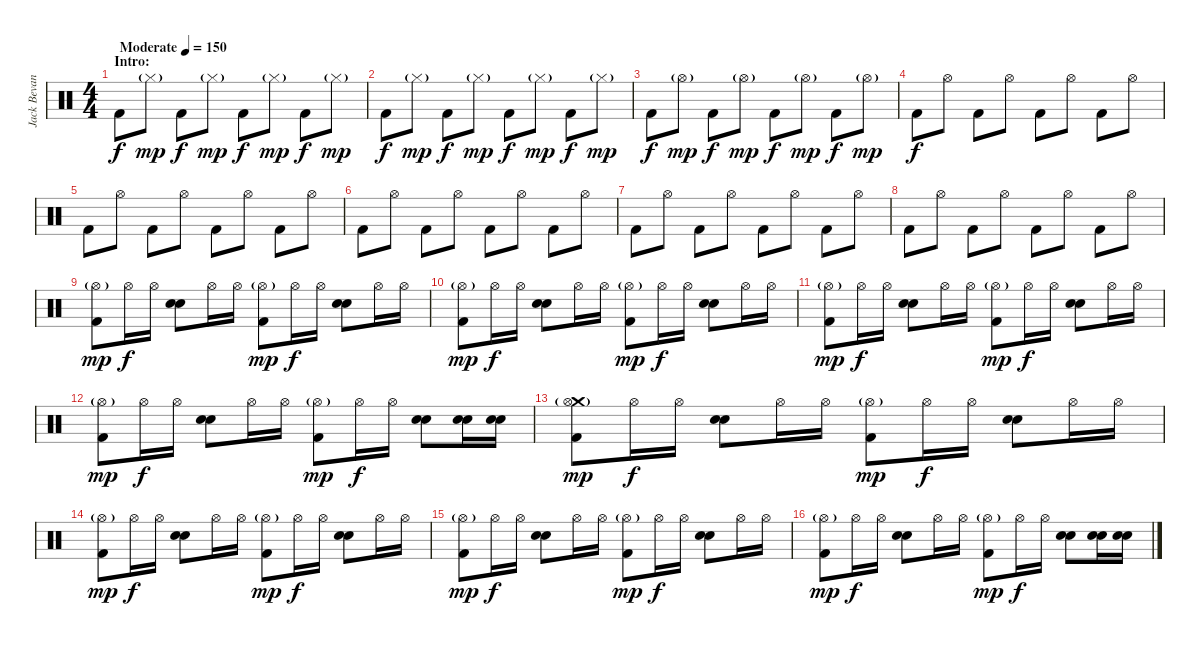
\track ("Jack Bevan (Percussion)" "Jack Bevan") {instrument percussion bank 255}
\staff {score}
\articulation defaults
\ts (4 4)
\section ("" "Intro:")
\tempo (150 "Moderate")
\clef neutral
\ks c "Kick (hit) 2".8{dy f} "Hi-Hat (closed)"{g}.8{dy mp} "Kick (hit) 2".8{dy f} "Hi-Hat (closed)"{g}.8{dy mp} "Kick (hit) 2".8{dy f} "Hi-Hat (closed)"{g}.8{dy mp} "Kick (hit) 2".8{dy f} "Hi-Hat (closed)"{g}.8{dy mp}
|
"Kick (hit) 2".8{dy f} "Hi-Hat (closed)"{g}.8{dy mp} "Kick (hit) 2".8{dy f} "Hi-Hat (closed)"{g}.8{dy mp} "Kick (hit) 2".8{dy f} "Hi-Hat (closed)"{g}.8{dy mp} "Kick (hit) 2".8{dy f} "Hi-Hat (closed)"{g}.8{dy mp} |
"Kick (hit) 2".8{dy f} "Hi-Hat (open)"{g}.8{dy mp} "Kick (hit) 2".8{dy f} "Hi-Hat (open)"{g}.8{dy mp} "Kick (hit) 2".8{dy f} "Hi-Hat (open)"{g}.8{dy mp} "Kick (hit) 2".8{dy f} "Hi-Hat (open)"{g}.8{dy mp} |
"Kick (hit) 2".8{dy f} "Hi-Hat (open)".8 "Kick (hit) 2".8 "Hi-Hat (open)".8 "Kick (hit) 2".8 "Hi-Hat (open)".8 "Kick (hit) 2".8 "Hi-Hat (open)".8 |
"Kick (hit) 2".8{volume 13} "Hi-Hat (open)".8 "Kick (hit) 2".8 "Hi-Hat (open)".8 "Kick (hit) 2".8 "Hi-Hat (open)".8 "Kick (hit) 2".8 "Hi-Hat (open)".8 |
"Kick (hit) 2".8 "Hi-Hat (open)".8 "Kick (hit) 2".8 "Hi-Hat (open)".8 "Kick (hit) 2".8 "Hi-Hat (open)".8 "Kick (hit) 2".8 "Hi-Hat (open)".8 |
"Kick (hit) 2".8 "Hi-Hat (open)".8 "Kick (hit) 2".8 "Hi-Hat (open)".8 "Kick (hit) 2".8 "Hi-Hat (open)".8 "Kick (hit) 2".8 "Hi-Hat (open)".8 |
"Kick (hit) 2".8 "Hi-Hat (open)".8 "Kick (hit) 2".8 "Hi-Hat (open)".8 "Kick (hit) 2".8 "Hi-Hat (open)".8 "Kick (hit) 2".8 "Hi-Hat (open)".8 |
("Hi-Hat (open)"{g} "Kick (hit) 2").8{dy mp volume 16} "Hi-Hat (open)".16{dy f} "Hi-Hat (open)".16 ("Snare (hit) 2" "Snare (hit) 2").8 "Hi-Hat (open)".16 "Hi-Hat (open)".16 ("Hi-Hat (open)"{g} "Kick (hit) 2").8{dy mp} "Hi-Hat (open)".16{dy f} "Hi-Hat (open)".16 ("Snare (hit) 2" "Snare (hit) 2").8 "Hi-Hat (open)".16 "Hi-Hat (open)".16 |
("Hi-Hat (open)"{g} "Kick (hit) 2").8{dy mp} "Hi-Hat (open)".16{dy f} "Hi-Hat (open)".16 ("Snare (hit) 2" "Snare (hit) 2").8 "Hi-Hat (open)".16 "Hi-Hat (open)".16 ("Hi-Hat (open)"{g} "Kick (hit) 2").8{dy mp} "Hi-Hat (open)".16{dy f} "Hi-Hat (open)".16 ("Snare (hit) 2" "Snare (hit) 2").8 "Hi-Hat (open)".16 "Hi-Hat (open)".16 |
("Hi-Hat (open)"{g} "Kick (hit) 2").8{dy mp} "Hi-Hat (open)".16{dy f} "Hi-Hat (open)".16 ("Snare (hit) 2" "Snare (hit) 2").8 "Hi-Hat (open)".16 "Hi-Hat (open)".16 ("Hi-Hat (open)"{g} "Kick (hit) 2").8{dy mp} "Hi-Hat (open)".16{dy f} "Hi-Hat (open)".16 ("Snare (hit) 2" "Snare (hit) 2").8 "Hi-Hat (open)".16 "Hi-Hat (open)".16 |
("Hi-Hat (open)"{g} "Kick (hit) 2").8{dy mp} "Hi-Hat (open)".16{dy f} "Hi-Hat (open)".16 ("Snare (hit) 2" "Snare (hit)").8 "Hi-Hat (open)".16 "Hi-Hat (open)".16 ("Hi-Hat (open)"{g} "Kick (hit) 2").8{dy mp} "Hi-Hat (open)".16{dy f} "Hi-Hat (open)".16 ("Snare (hit) 2" "Snare (hit) 2").8 ("Snare (hit) 2" "Snare (hit) 2").16 ("Snare (hit) 2" "Snare (hit) 2").16 |
("Crash medium (hit)" "Hi-Hat (open)"{g} "Kick (hit) 2").8{dy mp} "Hi-Hat (open)".16{dy f} "Hi-Hat (open)".16 ("Snare (hit) 2" "Snare (hit) 2").8 "Hi-Hat (open)".16 "Hi-Hat (open)".16 ("Hi-Hat (open)"{g} "Kick (hit) 2").8{dy mp} "Hi-Hat (open)".16{dy f} "Hi-Hat (open)".16 ("Snare (hit) 2" "Snare (hit) 2").8 "Hi-Hat (open)".16 "Hi-Hat (open)".16 |
("Hi-Hat (open)"{g} "Kick (hit) 2").8{dy mp} "Hi-Hat (open)".16{dy f} "Hi-Hat (open)".16 ("Snare (hit) 2" "Snare (hit) 2").8 "Hi-Hat (open)".16 "Hi-Hat (open)".16 ("Hi-Hat (open)"{g} "Kick (hit) 2").8{dy mp} "Hi-Hat (open)".16{dy f} "Hi-Hat (open)".16 ("Snare (hit) 2" "Snare (hit) 2").8 "Hi-Hat (open)".16 "Hi-Hat (open)".16 |
("Hi-Hat (open)"{g} "Kick (hit) 2").8{dy mp} "Hi-Hat (open)".16{dy f} "Hi-Hat (open)".16 ("Snare (hit) 2" "Snare (hit) 2").8 "Hi-Hat (open)".16 "Hi-Hat (open)".16 ("Hi-Hat (open)"{g} "Kick (hit) 2").8{dy mp} "Hi-Hat (open)".16{dy f} "Hi-Hat (open)".16 ("Snare (hit) 2" "Snare (hit) 2").8 "Hi-Hat (open)".16 "Hi-Hat (open)".16 |
("Hi-Hat (open)"{g} "Kick (hit) 2").8{dy mp} "Hi-Hat (open)".16{dy f} "Hi-Hat (open)".16 ("Snare (hit) 2" "Snare (hit) 2").8 "Hi-Hat (open)".16 "Hi-Hat (open)".16 ("Hi-Hat (open)"{g} "Kick (hit) 2").8{dy mp} "Hi-Hat (open)".16{dy f} "Hi-Hat (open)".16 ("Snare (hit) 2" "Snare (hit) 2").8 ("Snare (hit) 2" "Snare (hit) 2").16 ("Snare (hit) 2" "Snare (hit) 2").16
